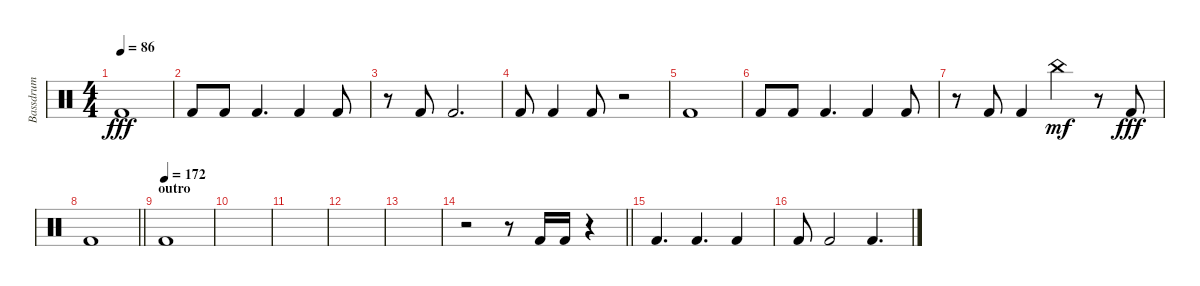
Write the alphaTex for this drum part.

\track ("Bassdrum" "Bassdrum") {instrument percussion}
\staff {score}
\articulation defaults
\ts (4 4)
\tempo 86
\clef neutral
\ks c "Kick (hit) 2".1{dy fff}
|
"Kick (hit) 2".8 "Kick (hit) 2".8 "Kick (hit) 2".4{d} "Kick (hit) 2".4 "Kick (hit) 2".8 |
r.8 "Kick (hit) 2".8 "Kick (hit) 2".2{d} |
"Kick (hit) 2".8 "Kick (hit) 2".4 "Kick (hit) 2".8 r.2 |
"Kick (hit) 2".1 |
"Kick (hit) 2".8 "Kick (hit) 2".8 "Kick (hit) 2".4{d} "Kick (hit) 2".4 "Kick (hit) 2".8 |
r.8 "Kick (hit) 2".8 "Kick (hit) 2".4 "China (hit)".4{dy mf} r.8 "Kick (hit) 2".8{dy fff} |
\barLineRight lightlight "Kick (hit) 2".1
|
\section ("" "outro")
\tempo (172)
"Kick (hit) 2".1 |
|
|
|
|
\barLineRight lightlight
r.2 r.8 "Kick (hit) 2".16 "Kick (hit) 2".16 r.4 |
\section ("" "")
"Kick (hit) 2".4{d} "Kick (hit) 2".4{d} "Kick (hit) 2".4 |
"Kick (hit) 2".8 "Kick (hit) 2".2 "Kick (hit) 2".4{d}
